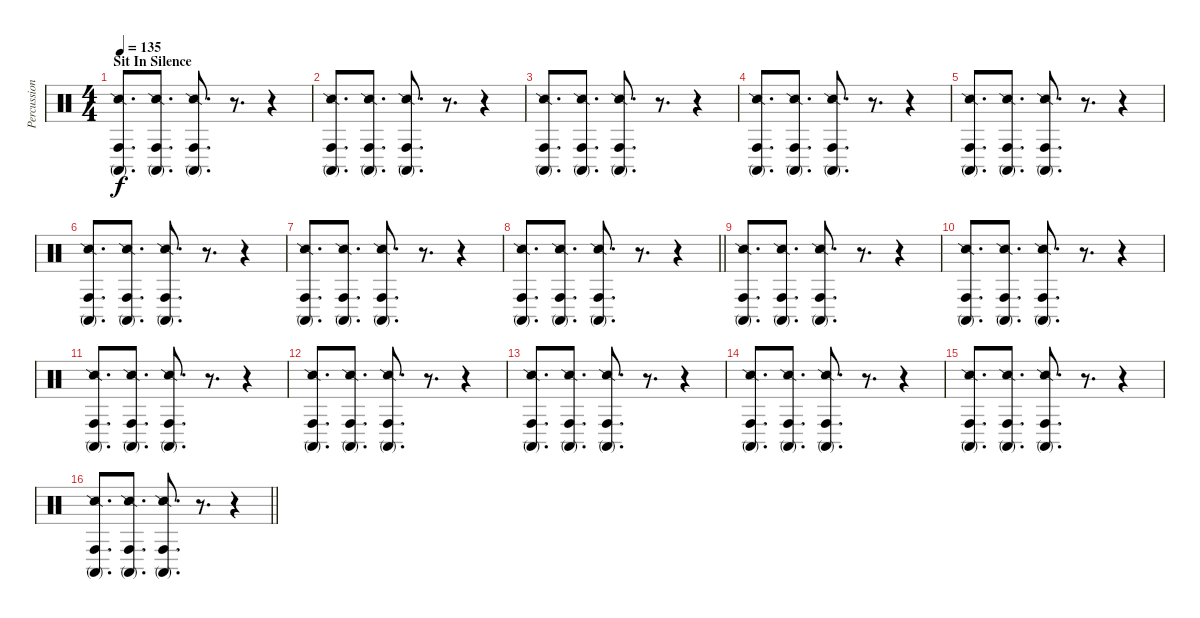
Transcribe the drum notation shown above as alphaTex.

\track ("Percussion FX" "Percussion") {instrument percussion}
\staff {score}
\articulation defaults
\ts (4 4)
\section ("" "Sit In Silence")
\tempo 135
\clef neutral
\ks c
("Snare (side stick) 2" "Conga high (mute)" "Conga high (hit)").8{d dy f} ("Snare (side stick) 2" "Conga high (mute)" "Conga high (hit)").8{d} ("Snare (side stick) 2" "Conga high (mute)" "Conga high (hit)").8{d} r.8{d} r.4 |
("Snare (side stick) 2" "Conga high (mute)" "Conga high (hit)").8{d} ("Snare (side stick) 2" "Conga high (mute)" "Conga high (hit)").8{d} ("Snare (side stick) 2" "Conga high (mute)" "Conga high (hit)").8{d} r.8{d} r.4 |
("Snare (side stick) 2" "Conga high (mute)" "Conga high (hit)").8{d} ("Snare (side stick) 2" "Conga high (mute)" "Conga high (hit)").8{d} ("Snare (side stick) 2" "Conga high (mute)" "Conga high (hit)").8{d} r.8{d} r.4 |
("Snare (side stick) 2" "Conga high (mute)" "Conga high (hit)").8{d} ("Snare (side stick) 2" "Conga high (mute)" "Conga high (hit)").8{d} ("Snare (side stick) 2" "Conga high (mute)" "Conga high (hit)").8{d} r.8{d} r.4 |
("Snare (side stick) 2" "Conga high (mute)" "Conga high (hit)").8{d} ("Snare (side stick) 2" "Conga high (mute)" "Conga high (hit)").8{d} ("Snare (side stick) 2" "Conga high (mute)" "Conga high (hit)").8{d} r.8{d} r.4 |
("Snare (side stick) 2" "Conga high (mute)" "Conga high (hit)").8{d} ("Snare (side stick) 2" "Conga high (mute)" "Conga high (hit)").8{d} ("Snare (side stick) 2" "Conga high (mute)" "Conga high (hit)").8{d} r.8{d} r.4 |
("Snare (side stick) 2" "Conga high (mute)" "Conga high (hit)").8{d} ("Snare (side stick) 2" "Conga high (mute)" "Conga high (hit)").8{d} ("Snare (side stick) 2" "Conga high (mute)" "Conga high (hit)").8{d} r.8{d} r.4 |
\barLineRight lightlight
("Snare (side stick) 2" "Conga high (mute)" "Conga high (hit)").8{d} ("Snare (side stick) 2" "Conga high (mute)" "Conga high (hit)").8{d} ("Snare (side stick) 2" "Conga high (mute)" "Conga high (hit)").8{d} r.8{d} r.4 |
("Snare (side stick) 2" "Conga high (mute)" "Conga high (hit)").8{d} ("Snare (side stick) 2" "Conga high (mute)" "Conga high (hit)").8{d} ("Snare (side stick) 2" "Conga high (mute)" "Conga high (hit)").8{d} r.8{d} r.4 |
("Snare (side stick) 2" "Conga high (mute)" "Conga high (hit)").8{d} ("Snare (side stick) 2" "Conga high (mute)" "Conga high (hit)").8{d} ("Snare (side stick) 2" "Conga high (mute)" "Conga high (hit)").8{d} r.8{d} r.4 |
("Snare (side stick) 2" "Conga high (mute)" "Conga high (hit)").8{d} ("Snare (side stick) 2" "Conga high (mute)" "Conga high (hit)").8{d} ("Snare (side stick) 2" "Conga high (mute)" "Conga high (hit)").8{d} r.8{d} r.4 |
("Snare (side stick) 2" "Conga high (mute)" "Conga high (hit)").8{d} ("Snare (side stick) 2" "Conga high (mute)" "Conga high (hit)").8{d} ("Snare (side stick) 2" "Conga high (mute)" "Conga high (hit)").8{d} r.8{d} r.4 |
("Snare (side stick) 2" "Conga high (mute)" "Conga high (hit)").8{d} ("Snare (side stick) 2" "Conga high (mute)" "Conga high (hit)").8{d} ("Snare (side stick) 2" "Conga high (mute)" "Conga high (hit)").8{d} r.8{d} r.4 |
("Snare (side stick) 2" "Conga high (mute)" "Conga high (hit)").8{d} ("Snare (side stick) 2" "Conga high (mute)" "Conga high (hit)").8{d} ("Snare (side stick) 2" "Conga high (mute)" "Conga high (hit)").8{d} r.8{d} r.4 |
("Snare (side stick) 2" "Conga high (mute)" "Conga high (hit)").8{d} ("Snare (side stick) 2" "Conga high (mute)" "Conga high (hit)").8{d} ("Snare (side stick) 2" "Conga high (mute)" "Conga high (hit)").8{d} r.8{d} r.4 |
\barLineRight lightlight
("Snare (side stick) 2" "Conga high (mute)" "Conga high (hit)").8{d} ("Snare (side stick) 2" "Conga high (mute)" "Conga high (hit)").8{d} ("Snare (side stick) 2" "Conga high (mute)" "Conga high (hit)").8{d} r.8{d} r.4
